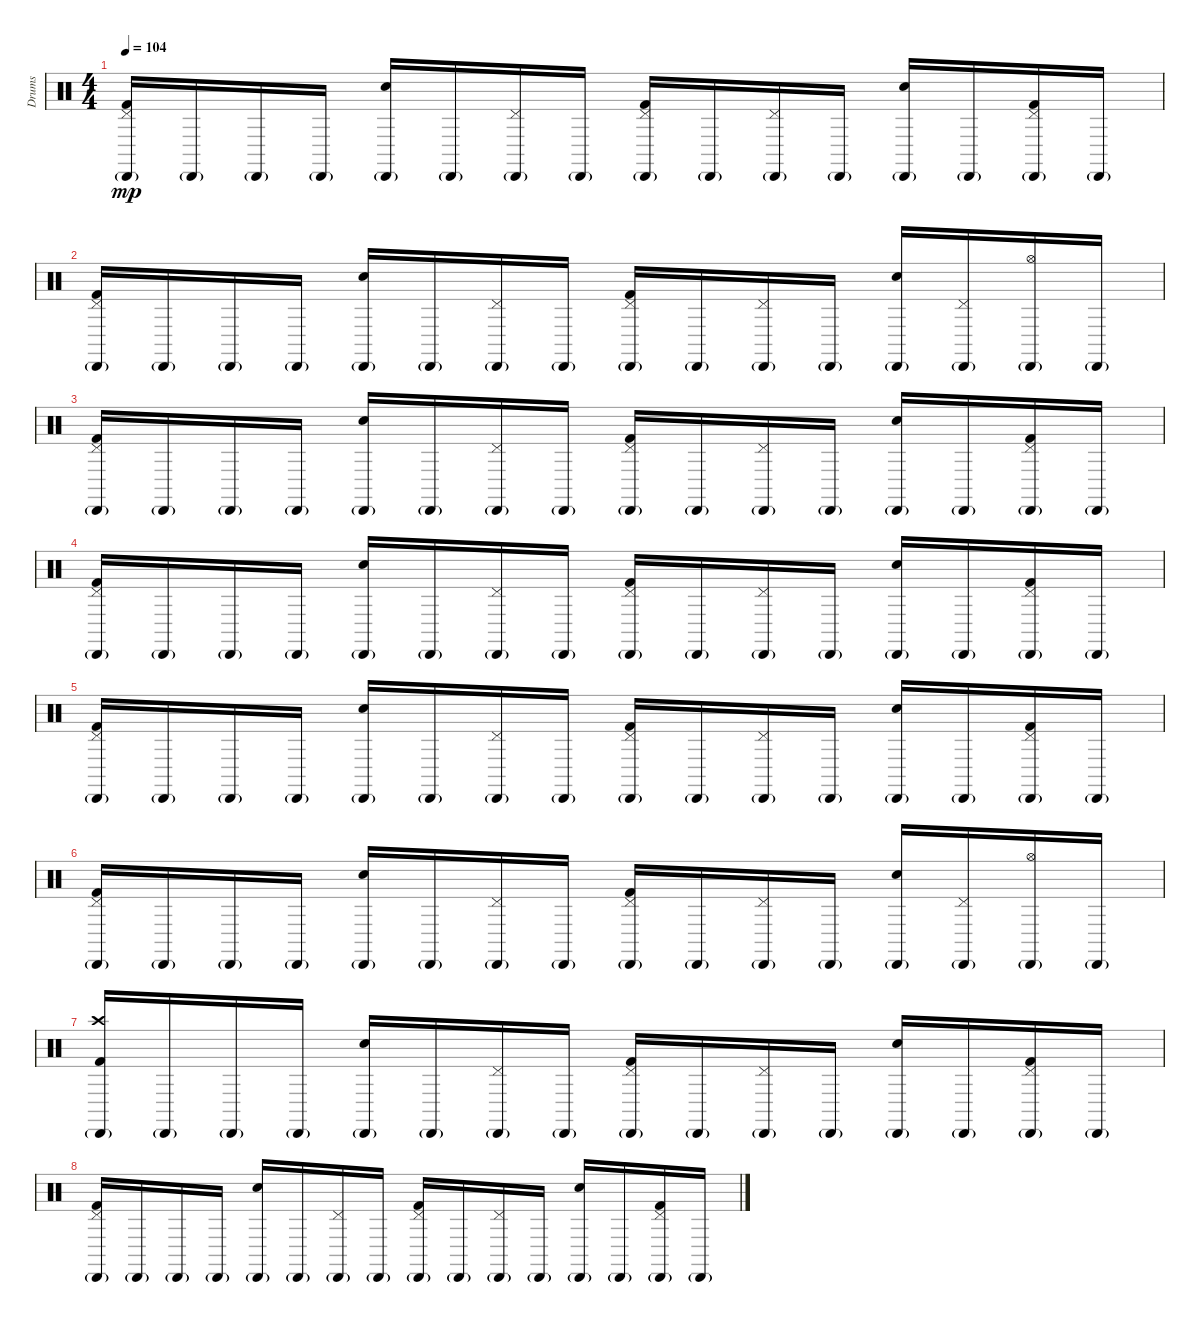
\track ("Drums" "Drums") {instrument percussion}
\staff {score}
\articulation defaults
\ts (4 4)
\tempo 104
\clef neutral
\ks c
("Pedal Hi-Hat (hit)" "Cabasa (hit)"{g} "Kick (hit) 2").16{dy mp} "Cabasa (hit)"{g}.16 "Cabasa (hit)"{g}.16 "Cabasa (hit)"{g}.16 ("Snare (hit) 2" "Cabasa (hit)"{g}).16 "Cabasa (hit)"{g}.16 ("Pedal Hi-Hat (hit)" "Cabasa (hit)"{g}).16 "Cabasa (hit)"{g}.16 ("Pedal Hi-Hat (hit)" "Cabasa (hit)"{g} "Kick (hit) 2").16 "Cabasa (hit)"{g}.16 ("Pedal Hi-Hat (hit)" "Cabasa (hit)"{g}).16 "Cabasa (hit)"{g}.16 ("Snare (hit) 2" "Cabasa (hit)"{g}).16 "Cabasa (hit)"{g}.16 ("Pedal Hi-Hat (hit)" "Cabasa (hit)"{g} "Kick (hit) 2").16 "Cabasa (hit)"{g}.16 |
("Pedal Hi-Hat (hit)" "Cabasa (hit)"{g} "Kick (hit) 2").16 "Cabasa (hit)"{g}.16 "Cabasa (hit)"{g}.16 "Cabasa (hit)"{g}.16 ("Snare (hit) 2" "Cabasa (hit)"{g}).16 "Cabasa (hit)"{g}.16 ("Pedal Hi-Hat (hit)" "Cabasa (hit)"{g}).16 "Cabasa (hit)"{g}.16 ("Pedal Hi-Hat (hit)" "Cabasa (hit)"{g} "Kick (hit) 2").16 "Cabasa (hit)"{g}.16 ("Pedal Hi-Hat (hit)" "Cabasa (hit)"{g}).16 "Cabasa (hit)"{g}.16 ("Snare (hit) 2" "Cabasa (hit)"{g}).16 ("Pedal Hi-Hat (hit)" "Cabasa (hit)"{g}).16 ("Hi-Hat (open)" "Cabasa (hit)"{g}).16 "Cabasa (hit)"{g}.16 |
("Pedal Hi-Hat (hit)" "Cabasa (hit)"{g} "Kick (hit) 2").16 "Cabasa (hit)"{g}.16 "Cabasa (hit)"{g}.16 "Cabasa (hit)"{g}.16 ("Snare (hit) 2" "Cabasa (hit)"{g}).16 "Cabasa (hit)"{g}.16 ("Pedal Hi-Hat (hit)" "Cabasa (hit)"{g}).16 "Cabasa (hit)"{g}.16 ("Pedal Hi-Hat (hit)" "Cabasa (hit)"{g} "Kick (hit) 2").16 "Cabasa (hit)"{g}.16 ("Pedal Hi-Hat (hit)" "Cabasa (hit)"{g}).16 "Cabasa (hit)"{g}.16 ("Snare (hit) 2" "Cabasa (hit)"{g}).16 "Cabasa (hit)"{g}.16 ("Pedal Hi-Hat (hit)" "Cabasa (hit)"{g} "Kick (hit) 2").16 "Cabasa (hit)"{g}.16 |
("Pedal Hi-Hat (hit)" "Cabasa (hit)"{g} "Kick (hit) 2").16 "Cabasa (hit)"{g}.16 "Cabasa (hit)"{g}.16 "Cabasa (hit)"{g}.16 ("Snare (hit) 2" "Cabasa (hit)"{g}).16 "Cabasa (hit)"{g}.16 ("Pedal Hi-Hat (hit)" "Cabasa (hit)"{g}).16 "Cabasa (hit)"{g}.16 ("Pedal Hi-Hat (hit)" "Cabasa (hit)"{g} "Kick (hit) 2").16 "Cabasa (hit)"{g}.16 ("Pedal Hi-Hat (hit)" "Cabasa (hit)"{g}).16 "Cabasa (hit)"{g}.16 ("Snare (hit) 2" "Cabasa (hit)"{g}).16 "Cabasa (hit)"{g}.16 ("Pedal Hi-Hat (hit)" "Cabasa (hit)"{g} "Kick (hit) 2").16 "Cabasa (hit)"{g}.16 |
("Pedal Hi-Hat (hit)" "Cabasa (hit)"{g} "Kick (hit) 2").16 "Cabasa (hit)"{g}.16 "Cabasa (hit)"{g}.16 "Cabasa (hit)"{g}.16 ("Snare (hit) 2" "Cabasa (hit)"{g}).16 "Cabasa (hit)"{g}.16 ("Pedal Hi-Hat (hit)" "Cabasa (hit)"{g}).16 "Cabasa (hit)"{g}.16 ("Pedal Hi-Hat (hit)" "Cabasa (hit)"{g} "Kick (hit) 2").16 "Cabasa (hit)"{g}.16 ("Pedal Hi-Hat (hit)" "Cabasa (hit)"{g}).16 "Cabasa (hit)"{g}.16 ("Snare (hit) 2" "Cabasa (hit)"{g}).16 "Cabasa (hit)"{g}.16 ("Pedal Hi-Hat (hit)" "Cabasa (hit)"{g} "Kick (hit) 2").16 "Cabasa (hit)"{g}.16 |
("Pedal Hi-Hat (hit)" "Cabasa (hit)"{g} "Kick (hit) 2").16 "Cabasa (hit)"{g}.16 "Cabasa (hit)"{g}.16 "Cabasa (hit)"{g}.16 ("Snare (hit) 2" "Cabasa (hit)"{g}).16 "Cabasa (hit)"{g}.16 ("Pedal Hi-Hat (hit)" "Cabasa (hit)"{g}).16 "Cabasa (hit)"{g}.16 ("Pedal Hi-Hat (hit)" "Cabasa (hit)"{g} "Kick (hit) 2").16 "Cabasa (hit)"{g}.16 ("Pedal Hi-Hat (hit)" "Cabasa (hit)"{g}).16 "Cabasa (hit)"{g}.16 ("Snare (hit) 2" "Cabasa (hit)"{g}).16 ("Pedal Hi-Hat (hit)" "Cabasa (hit)"{g}).16 ("Hi-Hat (open)" "Cabasa (hit)"{g}).16 "Cabasa (hit)"{g}.16 |
("Crash high (hit)" "Cabasa (hit)"{g} "Kick (hit) 2").16 "Cabasa (hit)"{g}.16 "Cabasa (hit)"{g}.16 "Cabasa (hit)"{g}.16 ("Snare (hit) 2" "Cabasa (hit)"{g}).16 "Cabasa (hit)"{g}.16 ("Pedal Hi-Hat (hit)" "Cabasa (hit)"{g}).16 "Cabasa (hit)"{g}.16 ("Pedal Hi-Hat (hit)" "Cabasa (hit)"{g} "Kick (hit) 2").16 "Cabasa (hit)"{g}.16 ("Pedal Hi-Hat (hit)" "Cabasa (hit)"{g}).16 "Cabasa (hit)"{g}.16 ("Snare (hit) 2" "Cabasa (hit)"{g}).16 "Cabasa (hit)"{g}.16 ("Pedal Hi-Hat (hit)" "Cabasa (hit)"{g} "Kick (hit) 2").16 "Cabasa (hit)"{g}.16 |
("Pedal Hi-Hat (hit)" "Cabasa (hit)"{g} "Kick (hit) 2").16 "Cabasa (hit)"{g}.16 "Cabasa (hit)"{g}.16 "Cabasa (hit)"{g}.16 ("Snare (hit) 2" "Cabasa (hit)"{g}).16 "Cabasa (hit)"{g}.16 ("Pedal Hi-Hat (hit)" "Cabasa (hit)"{g}).16 "Cabasa (hit)"{g}.16 ("Pedal Hi-Hat (hit)" "Cabasa (hit)"{g} "Kick (hit) 2").16 "Cabasa (hit)"{g}.16 ("Pedal Hi-Hat (hit)" "Cabasa (hit)"{g}).16 "Cabasa (hit)"{g}.16 ("Snare (hit) 2" "Cabasa (hit)"{g}).16 "Cabasa (hit)"{g}.16 ("Pedal Hi-Hat (hit)" "Cabasa (hit)"{g} "Kick (hit) 2").16 "Cabasa (hit)"{g}.16
